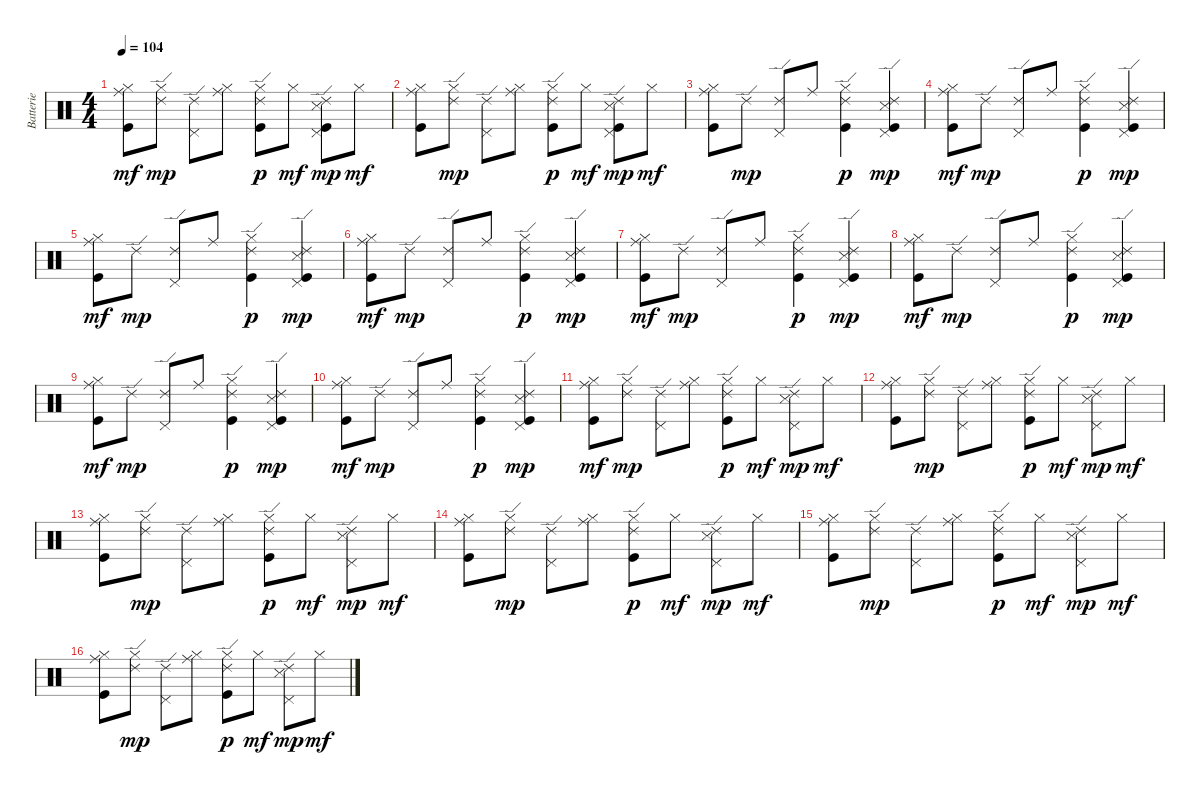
\track ("Batterie" "Batterie") {instrument percussion}
\staff {score}
\articulation defaults
\ts (4 4)
\tempo 104
\clef neutral
\ks c
("Hi-Hat (closed)" "Ride (middle)" "Kick (hit)").8{dy mf} ("Hi-Hat (closed)" "Ride (edge) 2").8{dy mp} ("Pedal Hi-Hat (hit)" "Ride (edge) 2").8 ("Hi-Hat (closed)" "Ride (middle)").8 ("Hi-Hat (closed)" "Kick (hit)" "Ride (edge) 2").8{dy p} "Hi-Hat (closed)".8{dy mf} ("Snare (side stick) 3" "Pedal Hi-Hat (hit)" "Kick (hit)" "Ride (edge) 2").8{dy mp} "Hi-Hat (closed)".8{dy mf} |
("Hi-Hat (closed)" "Ride (middle)" "Kick (hit)").8 ("Hi-Hat (closed)" "Ride (edge) 2").8{dy mp} ("Pedal Hi-Hat (hit)" "Ride (edge) 2").8 ("Hi-Hat (closed)" "Ride (middle)").8 ("Hi-Hat (closed)" "Kick (hit)" "Ride (edge) 2").8{dy p} "Hi-Hat (closed)".8{dy mf} ("Snare (side stick) 3" "Pedal Hi-Hat (hit)" "Kick (hit)" "Ride (edge) 2").8{dy mp} "Hi-Hat (closed)".8{dy mf} |
("Hi-Hat (closed)" "Ride (middle)" "Kick (hit)").8 "Ride (edge) 2".8{dy mp} ("Pedal Hi-Hat (hit)" "Ride (edge) 2").8 "Ride (middle)".8 ("Hi-Hat (closed)" "Kick (hit)" "Ride (edge) 2").4{dy p} ("Snare (side stick) 3" "Pedal Hi-Hat (hit)" "Kick (hit)" "Ride (edge) 2").4{dy mp} |
("Hi-Hat (closed)" "Ride (middle)" "Kick (hit)").8{dy mf} "Ride (edge) 2".8{dy mp} ("Pedal Hi-Hat (hit)" "Ride (edge) 2").8 "Ride (middle)".8 ("Hi-Hat (closed)" "Kick (hit)" "Ride (edge) 2").4{dy p} ("Snare (side stick) 3" "Pedal Hi-Hat (hit)" "Kick (hit)" "Ride (edge) 2").4{dy mp} |
("Hi-Hat (closed)" "Ride (middle)" "Kick (hit)").8{dy mf} "Ride (edge) 2".8{dy mp} ("Pedal Hi-Hat (hit)" "Ride (edge) 2").8 "Ride (middle)".8 ("Hi-Hat (closed)" "Kick (hit)" "Ride (edge) 2").4{dy p} ("Snare (side stick) 3" "Pedal Hi-Hat (hit)" "Kick (hit)" "Ride (edge) 2").4{dy mp} |
("Hi-Hat (closed)" "Ride (middle)" "Kick (hit)").8{dy mf} "Ride (edge) 2".8{dy mp} ("Pedal Hi-Hat (hit)" "Ride (edge) 2").8 "Ride (middle)".8 ("Hi-Hat (closed)" "Kick (hit)" "Ride (edge) 2").4{dy p} ("Snare (side stick) 3" "Pedal Hi-Hat (hit)" "Kick (hit)" "Ride (edge) 2").4{dy mp} |
("Hi-Hat (closed)" "Ride (middle)" "Kick (hit)").8{dy mf} "Ride (edge) 2".8{dy mp} ("Pedal Hi-Hat (hit)" "Ride (edge) 2").8 "Ride (middle)".8 ("Hi-Hat (closed)" "Kick (hit)" "Ride (edge) 2").4{dy p} ("Snare (side stick) 3" "Pedal Hi-Hat (hit)" "Kick (hit)" "Ride (edge) 2").4{dy mp} |
("Hi-Hat (closed)" "Ride (middle)" "Kick (hit)").8{dy mf} "Ride (edge) 2".8{dy mp} ("Pedal Hi-Hat (hit)" "Ride (edge) 2").8 "Ride (middle)".8 ("Hi-Hat (closed)" "Kick (hit)" "Ride (edge) 2").4{dy p} ("Snare (side stick) 3" "Pedal Hi-Hat (hit)" "Kick (hit)" "Ride (edge) 2").4{dy mp} |
("Hi-Hat (closed)" "Ride (middle)" "Kick (hit)").8{dy mf} "Ride (edge) 2".8{dy mp} ("Pedal Hi-Hat (hit)" "Ride (edge) 2").8 "Ride (middle)".8 ("Hi-Hat (closed)" "Kick (hit)" "Ride (edge) 2").4{dy p} ("Snare (side stick) 3" "Pedal Hi-Hat (hit)" "Kick (hit)" "Ride (edge) 2").4{dy mp} |
("Hi-Hat (closed)" "Ride (middle)" "Kick (hit)").8{dy mf} "Ride (edge) 2".8{dy mp} ("Pedal Hi-Hat (hit)" "Ride (edge) 2").8 "Ride (middle)".8 ("Hi-Hat (closed)" "Kick (hit)" "Ride (edge) 2").4{dy p} ("Snare (side stick) 3" "Pedal Hi-Hat (hit)" "Kick (hit)" "Ride (edge) 2").4{dy mp} |
("Hi-Hat (closed)" "Ride (middle)" "Kick (hit)").8{dy mf} ("Hi-Hat (closed)" "Ride (edge) 2").8{dy mp} ("Pedal Hi-Hat (hit)" "Ride (edge) 2").8 ("Hi-Hat (closed)" "Ride (middle)").8 ("Hi-Hat (closed)" "Kick (hit)" "Ride (edge) 2").8{dy p} "Hi-Hat (closed)".8{dy mf} ("Snare (side stick) 3" "Pedal Hi-Hat (hit)" "Ride (edge) 2").8{dy mp} "Hi-Hat (closed)".8{dy mf} |
("Hi-Hat (closed)" "Ride (middle)" "Kick (hit)").8 ("Hi-Hat (closed)" "Ride (edge) 2").8{dy mp} ("Pedal Hi-Hat (hit)" "Ride (edge) 2").8 ("Hi-Hat (closed)" "Ride (middle)").8 ("Hi-Hat (closed)" "Kick (hit)" "Ride (edge) 2").8{dy p} "Hi-Hat (closed)".8{dy mf} ("Snare (side stick) 3" "Pedal Hi-Hat (hit)" "Ride (edge) 2").8{dy mp} "Hi-Hat (closed)".8{dy mf} |
("Hi-Hat (closed)" "Ride (middle)" "Kick (hit)").8 ("Hi-Hat (closed)" "Ride (edge) 2").8{dy mp} ("Pedal Hi-Hat (hit)" "Ride (edge) 2").8 ("Hi-Hat (closed)" "Ride (middle)").8 ("Hi-Hat (closed)" "Kick (hit)" "Ride (edge) 2").8{dy p} "Hi-Hat (closed)".8{dy mf} ("Snare (side stick) 3" "Pedal Hi-Hat (hit)" "Ride (edge) 2").8{dy mp} "Hi-Hat (closed)".8{dy mf} |
("Hi-Hat (closed)" "Ride (middle)" "Kick (hit)").8 ("Hi-Hat (closed)" "Ride (edge) 2").8{dy mp} ("Pedal Hi-Hat (hit)" "Ride (edge) 2").8 ("Hi-Hat (closed)" "Ride (middle)").8 ("Hi-Hat (closed)" "Kick (hit)" "Ride (edge) 2").8{dy p} "Hi-Hat (closed)".8{dy mf} ("Snare (side stick) 3" "Pedal Hi-Hat (hit)" "Ride (edge) 2").8{dy mp} "Hi-Hat (closed)".8{dy mf} |
("Hi-Hat (closed)" "Ride (middle)" "Kick (hit)").8 ("Hi-Hat (closed)" "Ride (edge) 2").8{dy mp} ("Pedal Hi-Hat (hit)" "Ride (edge) 2").8 ("Hi-Hat (closed)" "Ride (middle)").8 ("Hi-Hat (closed)" "Kick (hit)" "Ride (edge) 2").8{dy p} "Hi-Hat (closed)".8{dy mf} ("Snare (side stick) 3" "Pedal Hi-Hat (hit)" "Ride (edge) 2").8{dy mp} "Hi-Hat (closed)".8{dy mf} |
("Hi-Hat (closed)" "Ride (middle)" "Kick (hit)").8 ("Hi-Hat (closed)" "Ride (edge) 2").8{dy mp} ("Pedal Hi-Hat (hit)" "Ride (edge) 2").8 ("Hi-Hat (closed)" "Ride (middle)").8 ("Hi-Hat (closed)" "Kick (hit)" "Ride (edge) 2").8{dy p} "Hi-Hat (closed)".8{dy mf} ("Snare (side stick) 3" "Pedal Hi-Hat (hit)" "Ride (edge) 2").8{dy mp} "Hi-Hat (closed)".8{dy mf}
